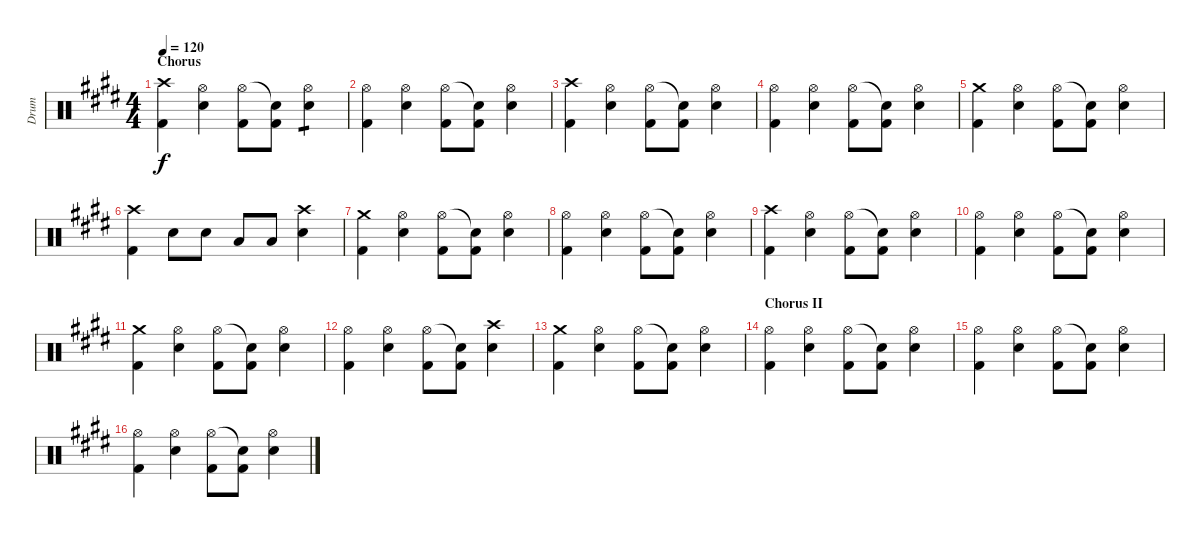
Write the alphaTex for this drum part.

\track ("Drum" "Drum") {instrument percussion}
\staff {score}
\articulation defaults
\ts (4 4)
\section ("" "Chorus")
\tempo 120
\clef neutral
\ks e
("Crash high (hit)" "Kick (hit) 2").4{dy f} ("Hi-Hat (open)" "Electric Snare (hit)").4 ("Hi-Hat (open)" "Kick (hit) 2").8 ("Snare (hit)"{t} "Kick (hit) 2").8 ("Hi-Hat (open)" "Electric Snare (hit)").4{tp 1} |
("Hi-Hat (open)" "Kick (hit) 2").4 ("Hi-Hat (open)" "Electric Snare (hit)").4 ("Hi-Hat (open)" "Kick (hit) 2").8 ("Snare (hit)"{t} "Kick (hit) 2").8 ("Hi-Hat (open)" "Electric Snare (hit)").4 |
("Crash high (hit)" "Kick (hit) 2").4 ("Hi-Hat (open)" "Electric Snare (hit)").4 ("Hi-Hat (open)" "Kick (hit) 2").8 ("Snare (hit)"{t} "Kick (hit) 2").8 ("Hi-Hat (open)" "Electric Snare (hit)").4 |
("Hi-Hat (open)" "Kick (hit) 2").4 ("Hi-Hat (open)" "Electric Snare (hit)").4 ("Hi-Hat (open)" "Kick (hit) 2").8 ("Snare (hit)"{t} "Kick (hit) 2").8 ("Hi-Hat (open)" "Electric Snare (hit)").4 |
("Crash medium (hit)" "Kick (hit) 2").4 ("Hi-Hat (open)" "Electric Snare (hit)").4 ("Hi-Hat (open)" "Kick (hit) 2").8 ("Snare (hit)"{t} "Kick (hit) 2").8 ("Hi-Hat (open)" "Electric Snare (hit)").4 |
("Crash high (hit)" "Kick (hit) 2").4 "Electric Snare (hit)".8 "Electric Snare (hit)".8 "Low Tom (hit)".8 "Low Tom (hit)".8 ("Crash high (hit)" "Electric Snare (hit)").4 |
("Crash medium (hit)" "Kick (hit) 2").4 ("Hi-Hat (open)" "Electric Snare (hit)").4 ("Hi-Hat (open)" "Kick (hit) 2").8 ("Snare (hit)"{t} "Kick (hit) 2").8 ("Hi-Hat (open)" "Electric Snare (hit)").4 |
("Hi-Hat (open)" "Kick (hit) 2").4 ("Hi-Hat (open)" "Electric Snare (hit)").4 ("Hi-Hat (open)" "Kick (hit) 2").8 ("Snare (hit)"{t} "Kick (hit) 2").8 ("Hi-Hat (open)" "Electric Snare (hit)").4 |
("Crash high (hit)" "Kick (hit) 2").4 ("Hi-Hat (open)" "Electric Snare (hit)").4 ("Hi-Hat (open)" "Kick (hit) 2").8 ("Snare (hit)"{t} "Kick (hit) 2").8 ("Hi-Hat (open)" "Electric Snare (hit)").4 |
("Hi-Hat (open)" "Kick (hit) 2").4 ("Hi-Hat (open)" "Electric Snare (hit)").4 ("Hi-Hat (open)" "Kick (hit) 2").8 ("Snare (hit)"{t} "Kick (hit) 2").8 ("Hi-Hat (open)" "Electric Snare (hit)").4 |
("Crash medium (hit)" "Kick (hit) 2").4 ("Hi-Hat (open)" "Electric Snare (hit)").4 ("Hi-Hat (open)" "Kick (hit) 2").8 ("Snare (hit)"{t} "Kick (hit) 2").8 ("Hi-Hat (open)" "Electric Snare (hit)").4 |
("Hi-Hat (open)" "Kick (hit) 2").4 ("Hi-Hat (open)" "Electric Snare (hit)").4 ("Hi-Hat (open)" "Kick (hit) 2").8 ("Snare (hit)"{t} "Kick (hit) 2").8 ("Crash high (hit)" "Electric Snare (hit)").4 |
("Crash medium (hit)" "Kick (hit) 2").4 ("Hi-Hat (open)" "Electric Snare (hit)").4 ("Hi-Hat (open)" "Kick (hit) 2").8 ("Snare (hit)"{t} "Kick (hit) 2").8 ("Hi-Hat (open)" "Electric Snare (hit)").4 |
\section ("" "Chorus II")
("Hi-Hat (open)" "Kick (hit) 2").4 ("Hi-Hat (open)" "Electric Snare (hit)").4 ("Hi-Hat (open)" "Kick (hit) 2").8 ("Snare (hit)"{t} "Kick (hit) 2").8 ("Hi-Hat (open)" "Electric Snare (hit)").4 |
("Hi-Hat (open)" "Kick (hit) 2").4 ("Hi-Hat (open)" "Electric Snare (hit)").4 ("Hi-Hat (open)" "Kick (hit) 2").8 ("Snare (hit)"{t} "Kick (hit) 2").8 ("Hi-Hat (open)" "Electric Snare (hit)").4 |
("Hi-Hat (open)" "Kick (hit) 2").4 ("Hi-Hat (open)" "Electric Snare (hit)").4 ("Hi-Hat (open)" "Kick (hit) 2").8 ("Snare (hit)"{t} "Kick (hit) 2").8 ("Hi-Hat (open)" "Electric Snare (hit)").4
